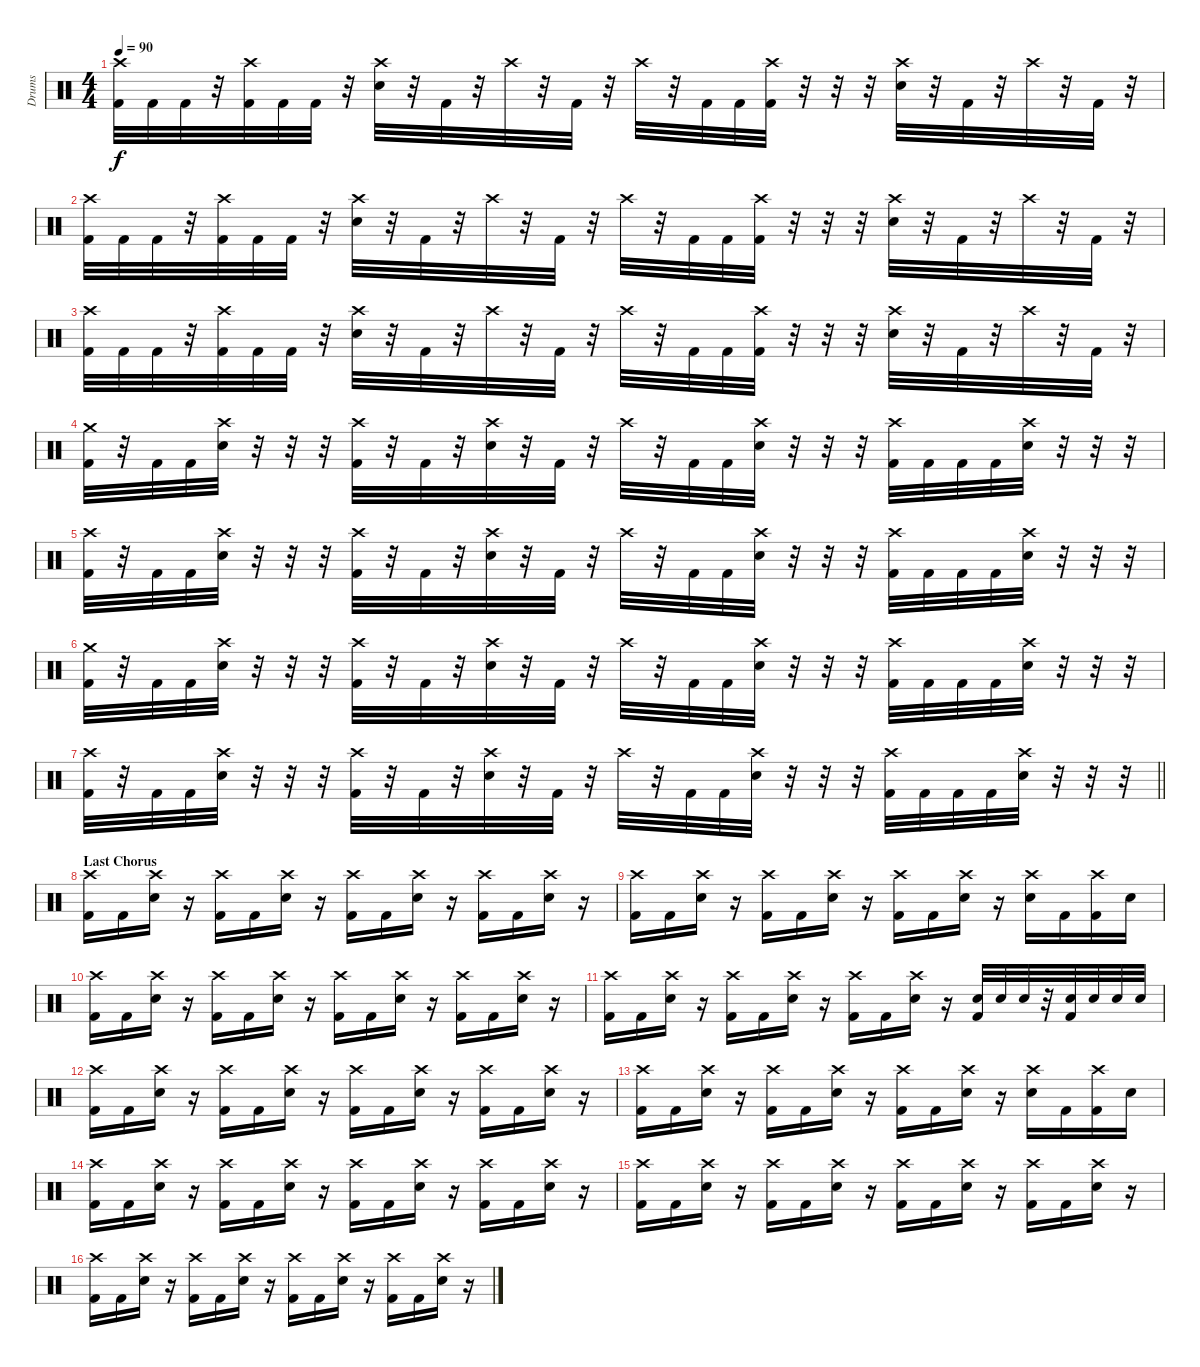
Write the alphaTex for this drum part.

\track ("Drums" "Drums") {instrument percussion}
\staff {score}
\articulation defaults
\ts (4 4)
\tempo 90
\clef neutral
\ks c
("Crash high (hit)" "Kick (hit) 2").32{dy f} "Kick (hit) 2".32 "Kick (hit) 2".32 r.32 ("Crash high (hit)" "Kick (hit) 2").32 "Kick (hit) 2".32 "Kick (hit) 2".32 r.32 ("Crash high (hit)" "Electric Snare (hit)").32 r.32 "Kick (hit) 2".32 r.32 "Crash high (hit)".32 r.32 "Kick (hit) 2".32 r.32 "Crash high (hit)".32 r.32 "Kick (hit) 2".32 "Kick (hit) 2".32 ("Crash high (hit)" "Kick (hit) 2").32 r.32 r.32 r.32 ("Crash high (hit)" "Electric Snare (hit)").32 r.32 "Kick (hit) 2".32 r.32 "Crash high (hit)".32 r.32 "Kick (hit) 2".32 r.32 |
("Crash high (hit)" "Kick (hit) 2").32 "Kick (hit) 2".32 "Kick (hit) 2".32 r.32 ("Crash high (hit)" "Kick (hit) 2").32 "Kick (hit) 2".32 "Kick (hit) 2".32 r.32 ("Crash high (hit)" "Electric Snare (hit)").32 r.32 "Kick (hit) 2".32 r.32 "Crash high (hit)".32 r.32 "Kick (hit) 2".32 r.32 "Crash high (hit)".32 r.32 "Kick (hit) 2".32 "Kick (hit) 2".32 ("Crash high (hit)" "Kick (hit) 2").32 r.32 r.32 r.32 ("Crash high (hit)" "Electric Snare (hit)").32 r.32 "Kick (hit) 2".32 r.32 "Crash high (hit)".32 r.32 "Kick (hit) 2".32 r.32 |
("Crash high (hit)" "Kick (hit) 2").32 "Kick (hit) 2".32 "Kick (hit) 2".32 r.32 ("Crash high (hit)" "Kick (hit) 2").32 "Kick (hit) 2".32 "Kick (hit) 2".32 r.32 ("Crash high (hit)" "Electric Snare (hit)").32 r.32 "Kick (hit) 2".32 r.32 "Crash high (hit)".32 r.32 "Kick (hit) 2".32 r.32 "Crash high (hit)".32 r.32 "Kick (hit) 2".32 "Kick (hit) 2".32 ("Crash high (hit)" "Kick (hit) 2").32 r.32 r.32 r.32 ("Crash high (hit)" "Electric Snare (hit)").32 r.32 "Kick (hit) 2".32 r.32 "Crash high (hit)".32 r.32 "Kick (hit) 2".32 r.32 |
("Crash medium (hit)" "Kick (hit) 2").32 r.32 "Kick (hit) 2".32 "Kick (hit) 2".32 ("Crash high (hit)" "Electric Snare (hit)").32 r.32 r.32 r.32 ("Crash high (hit)" "Kick (hit) 2").32 r.32 "Kick (hit) 2".32 r.32 ("Crash high (hit)" "Electric Snare (hit)").32 r.32 "Kick (hit) 2".32 r.32 "Crash high (hit)".32 r.32 "Kick (hit) 2".32 "Kick (hit) 2".32 ("Crash high (hit)" "Electric Snare (hit)").32 r.32 r.32 r.32 ("Crash high (hit)" "Kick (hit) 2").32 "Kick (hit) 2".32 "Kick (hit) 2".32 "Kick (hit) 2".32 ("Crash high (hit)" "Electric Snare (hit)").32 r.32 r.32 r.32 |
("Crash high (hit)" "Kick (hit) 2").32 r.32 "Kick (hit) 2".32 "Kick (hit) 2".32 ("Crash high (hit)" "Electric Snare (hit)").32 r.32 r.32 r.32 ("Crash high (hit)" "Kick (hit) 2").32 r.32 "Kick (hit) 2".32 r.32 ("Crash high (hit)" "Electric Snare (hit)").32 r.32 "Kick (hit) 2".32 r.32 "Crash high (hit)".32 r.32 "Kick (hit) 2".32 "Kick (hit) 2".32 ("Crash high (hit)" "Electric Snare (hit)").32 r.32 r.32 r.32 ("Crash high (hit)" "Kick (hit) 2").32 "Kick (hit) 2".32 "Kick (hit) 2".32 "Kick (hit) 2".32 ("Crash high (hit)" "Electric Snare (hit)").32 r.32 r.32 r.32 |
("Crash medium (hit)" "Kick (hit) 2").32 r.32 "Kick (hit) 2".32 "Kick (hit) 2".32 ("Crash high (hit)" "Electric Snare (hit)").32 r.32 r.32 r.32 ("Crash high (hit)" "Kick (hit) 2").32 r.32 "Kick (hit) 2".32 r.32 ("Crash high (hit)" "Electric Snare (hit)").32 r.32 "Kick (hit) 2".32 r.32 "Crash high (hit)".32 r.32 "Kick (hit) 2".32 "Kick (hit) 2".32 ("Crash high (hit)" "Electric Snare (hit)").32 r.32 r.32 r.32 ("Crash high (hit)" "Kick (hit) 2").32 "Kick (hit) 2".32 "Kick (hit) 2".32 "Kick (hit) 2".32 ("Crash high (hit)" "Electric Snare (hit)").32 r.32 r.32 r.32 |
\barLineRight lightlight
("Crash high (hit)" "Kick (hit) 2").32 r.32 "Kick (hit) 2".32 "Kick (hit) 2".32 ("Crash high (hit)" "Electric Snare (hit)").32 r.32 r.32 r.32 ("Crash high (hit)" "Kick (hit) 2").32 r.32 "Kick (hit) 2".32 r.32 ("Crash high (hit)" "Electric Snare (hit)").32 r.32 "Kick (hit) 2".32 r.32 "Crash high (hit)".32 r.32 "Kick (hit) 2".32 "Kick (hit) 2".32 ("Crash high (hit)" "Electric Snare (hit)").32 r.32 r.32 r.32 ("Crash high (hit)" "Kick (hit) 2").32 "Kick (hit) 2".32 "Kick (hit) 2".32 "Kick (hit) 2".32 ("Crash high (hit)" "Electric Snare (hit)").32 r.32 r.32 r.32 |
\section ("" "Last Chorus")
("Crash high (hit)" "Kick (hit) 2").16 "Kick (hit) 2".16 ("Crash high (hit)" "Electric Snare (hit)").16 r.16 ("Crash high (hit)" "Kick (hit) 2").16 "Kick (hit) 2".16 ("Crash high (hit)" "Electric Snare (hit)").16 r.16 ("Crash high (hit)" "Kick (hit) 2").16 "Kick (hit) 2".16 ("Crash high (hit)" "Electric Snare (hit)").16 r.16 ("Crash high (hit)" "Kick (hit) 2").16 "Kick (hit) 2".16 ("Crash high (hit)" "Electric Snare (hit)").16 r.16 |
("Crash high (hit)" "Kick (hit) 2").16 "Kick (hit) 2".16 ("Crash high (hit)" "Electric Snare (hit)").16 r.16 ("Crash high (hit)" "Kick (hit) 2").16 "Kick (hit) 2".16 ("Crash high (hit)" "Electric Snare (hit)").16 r.16 ("Crash high (hit)" "Kick (hit) 2").16 "Kick (hit) 2".16 ("Crash high (hit)" "Electric Snare (hit)").16 r.16 ("Crash high (hit)" "Electric Snare (hit)").16 "Kick (hit) 2".16 ("Crash high (hit)" "Kick (hit) 2").16 "Electric Snare (hit)".16 |
("Crash high (hit)" "Kick (hit) 2").16 "Kick (hit) 2".16 ("Crash high (hit)" "Electric Snare (hit)").16 r.16 ("Crash high (hit)" "Kick (hit) 2").16 "Kick (hit) 2".16 ("Crash high (hit)" "Electric Snare (hit)").16 r.16 ("Crash high (hit)" "Kick (hit) 2").16 "Kick (hit) 2".16 ("Crash high (hit)" "Electric Snare (hit)").16 r.16 ("Crash high (hit)" "Kick (hit) 2").16 "Kick (hit) 2".16 ("Crash high (hit)" "Electric Snare (hit)").16 r.16 |
("Crash high (hit)" "Kick (hit) 2").16 "Kick (hit) 2".16 ("Crash high (hit)" "Electric Snare (hit)").16 r.16 ("Crash high (hit)" "Kick (hit) 2").16 "Kick (hit) 2".16 ("Crash high (hit)" "Electric Snare (hit)").16 r.16 ("Crash high (hit)" "Kick (hit) 2").16 "Kick (hit) 2".16 ("Crash high (hit)" "Electric Snare (hit)").16 r.16 ("Electric Snare (hit)" "Kick (hit) 2").32 "Electric Snare (hit)".32 "Electric Snare (hit)".32 r.32 ("Electric Snare (hit)" "Kick (hit) 2").32 "Electric Snare (hit)".32 "Electric Snare (hit)".32 "Electric Snare (hit)".32 |
("Crash high (hit)" "Kick (hit) 2").16 "Kick (hit) 2".16 ("Crash high (hit)" "Electric Snare (hit)").16 r.16 ("Crash high (hit)" "Kick (hit) 2").16 "Kick (hit) 2".16 ("Crash high (hit)" "Electric Snare (hit)").16 r.16 ("Crash high (hit)" "Kick (hit) 2").16 "Kick (hit) 2".16 ("Crash high (hit)" "Electric Snare (hit)").16 r.16 ("Crash high (hit)" "Kick (hit) 2").16 "Kick (hit) 2".16 ("Crash high (hit)" "Electric Snare (hit)").16 r.16 |
("Crash high (hit)" "Kick (hit) 2").16 "Kick (hit) 2".16 ("Crash high (hit)" "Electric Snare (hit)").16 r.16 ("Crash high (hit)" "Kick (hit) 2").16 "Kick (hit) 2".16 ("Crash high (hit)" "Electric Snare (hit)").16 r.16 ("Crash high (hit)" "Kick (hit) 2").16 "Kick (hit) 2".16 ("Crash high (hit)" "Electric Snare (hit)").16 r.16 ("Crash high (hit)" "Electric Snare (hit)").16 "Kick (hit) 2".16 ("Crash high (hit)" "Kick (hit) 2").16 "Electric Snare (hit)".16 |
("Crash high (hit)" "Kick (hit) 2").16 "Kick (hit) 2".16 ("Crash high (hit)" "Electric Snare (hit)").16 r.16 ("Crash high (hit)" "Kick (hit) 2").16 "Kick (hit) 2".16 ("Crash high (hit)" "Electric Snare (hit)").16 r.16 ("Crash high (hit)" "Kick (hit) 2").16 "Kick (hit) 2".16 ("Crash high (hit)" "Electric Snare (hit)").16 r.16 ("Crash high (hit)" "Kick (hit) 2").16 "Kick (hit) 2".16 ("Crash high (hit)" "Electric Snare (hit)").16 r.16 |
("Crash high (hit)" "Kick (hit) 2").16 "Kick (hit) 2".16 ("Crash high (hit)" "Electric Snare (hit)").16 r.16 ("Crash high (hit)" "Kick (hit) 2").16 "Kick (hit) 2".16 ("Crash high (hit)" "Electric Snare (hit)").16 r.16 ("Crash high (hit)" "Kick (hit) 2").16 "Kick (hit) 2".16 ("Crash high (hit)" "Electric Snare (hit)").16 r.16 ("Crash high (hit)" "Kick (hit) 2").16 "Kick (hit) 2".16 ("Crash high (hit)" "Electric Snare (hit)").16 r.16 |
("Crash high (hit)" "Kick (hit) 2").16 "Kick (hit) 2".16 ("Crash high (hit)" "Electric Snare (hit)").16 r.16 ("Crash high (hit)" "Kick (hit) 2").16 "Kick (hit) 2".16 ("Crash high (hit)" "Electric Snare (hit)").16 r.16 ("Crash high (hit)" "Kick (hit) 2").16 "Kick (hit) 2".16 ("Crash high (hit)" "Electric Snare (hit)").16 r.16 ("Crash high (hit)" "Kick (hit) 2").16 "Kick (hit) 2".16 ("Crash high (hit)" "Electric Snare (hit)").16 r.16
